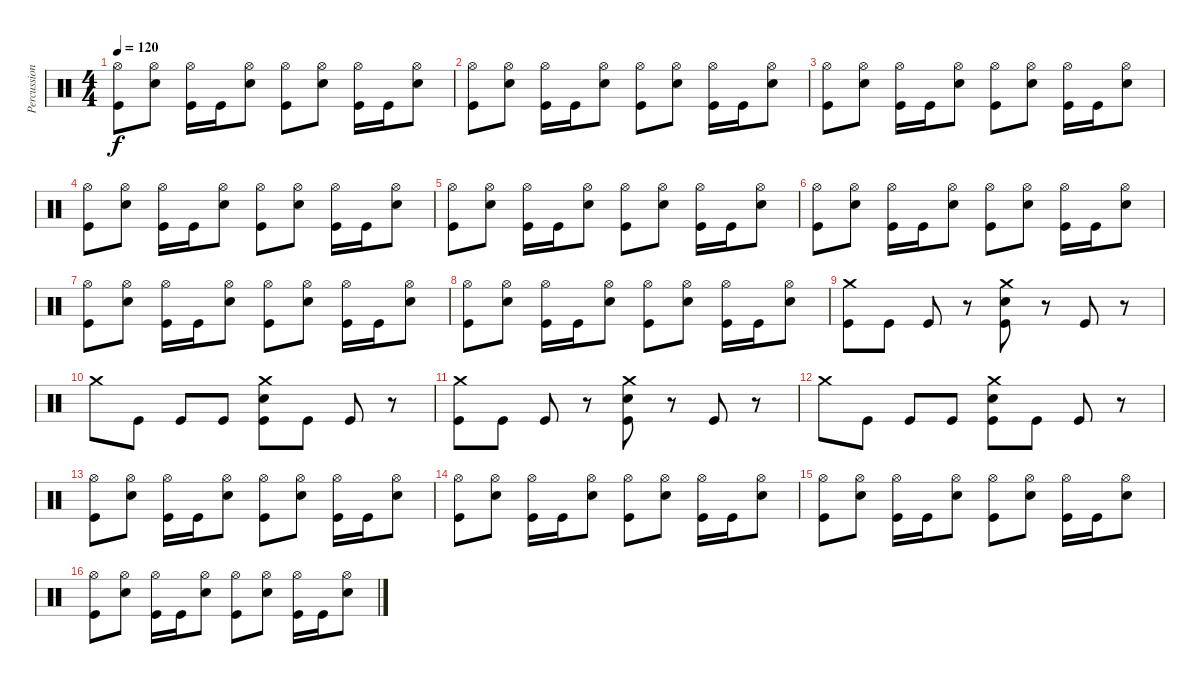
\track ("Percussion" "Percussion") {instrument percussion}
\staff {score}
\articulation defaults
\ts (4 4)
\tempo 120
\clef neutral
\ks c
("Hi-Hat (open)" "Kick (hit)").8{dy f} ("Hi-Hat (open)" "Snare (hit) 2").8 ("Hi-Hat (open)" "Kick (hit)").16 "Kick (hit)".16 ("Hi-Hat (open)" "Snare (hit) 2").8 ("Hi-Hat (open)" "Kick (hit)").8 ("Hi-Hat (open)" "Snare (hit) 2").8 ("Hi-Hat (open)" "Kick (hit)").16 "Kick (hit)".16 ("Hi-Hat (open)" "Snare (hit) 2").8 |
("Hi-Hat (open)" "Kick (hit)").8 ("Hi-Hat (open)" "Snare (hit) 2").8 ("Hi-Hat (open)" "Kick (hit)").16 "Kick (hit)".16 ("Hi-Hat (open)" "Snare (hit) 2").8 ("Hi-Hat (open)" "Kick (hit)").8 ("Hi-Hat (open)" "Snare (hit) 2").8 ("Hi-Hat (open)" "Kick (hit)").16 "Kick (hit)".16 ("Hi-Hat (open)" "Snare (hit) 2").8 |
("Hi-Hat (open)" "Kick (hit)").8 ("Hi-Hat (open)" "Snare (hit) 2").8 ("Hi-Hat (open)" "Kick (hit)").16 "Kick (hit)".16 ("Hi-Hat (open)" "Snare (hit) 2").8 ("Hi-Hat (open)" "Kick (hit)").8 ("Hi-Hat (open)" "Snare (hit) 2").8 ("Hi-Hat (open)" "Kick (hit)").16 "Kick (hit)".16 ("Hi-Hat (open)" "Snare (hit) 2").8 |
("Hi-Hat (open)" "Kick (hit)").8 ("Hi-Hat (open)" "Snare (hit) 2").8 ("Hi-Hat (open)" "Kick (hit)").16 "Kick (hit)".16 ("Hi-Hat (open)" "Snare (hit) 2").8 ("Hi-Hat (open)" "Kick (hit)").8 ("Hi-Hat (open)" "Snare (hit) 2").8 ("Hi-Hat (open)" "Kick (hit)").16 "Kick (hit)".16 ("Hi-Hat (open)" "Snare (hit) 2").8 |
("Hi-Hat (open)" "Kick (hit)").8 ("Hi-Hat (open)" "Snare (hit) 2").8 ("Hi-Hat (open)" "Kick (hit)").16 "Kick (hit)".16 ("Hi-Hat (open)" "Snare (hit) 2").8 ("Hi-Hat (open)" "Kick (hit)").8 ("Hi-Hat (open)" "Snare (hit) 2").8 ("Hi-Hat (open)" "Kick (hit)").16 "Kick (hit)".16 ("Hi-Hat (open)" "Snare (hit) 2").8 |
("Hi-Hat (open)" "Kick (hit)").8 ("Hi-Hat (open)" "Snare (hit) 2").8 ("Hi-Hat (open)" "Kick (hit)").16 "Kick (hit)".16 ("Hi-Hat (open)" "Snare (hit) 2").8 ("Hi-Hat (open)" "Kick (hit)").8 ("Hi-Hat (open)" "Snare (hit) 2").8 ("Hi-Hat (open)" "Kick (hit)").16 "Kick (hit)".16 ("Hi-Hat (open)" "Snare (hit) 2").8 |
("Hi-Hat (open)" "Kick (hit)").8 ("Hi-Hat (open)" "Snare (hit) 2").8 ("Hi-Hat (open)" "Kick (hit)").16 "Kick (hit)".16 ("Hi-Hat (open)" "Snare (hit) 2").8 ("Hi-Hat (open)" "Kick (hit)").8 ("Hi-Hat (open)" "Snare (hit) 2").8 ("Hi-Hat (open)" "Kick (hit)").16 "Kick (hit)".16 ("Hi-Hat (open)" "Snare (hit) 2").8 |
("Hi-Hat (open)" "Kick (hit)").8 ("Hi-Hat (open)" "Snare (hit) 2").8 ("Hi-Hat (open)" "Kick (hit)").16 "Kick (hit)".16 ("Hi-Hat (open)" "Snare (hit) 2").8 ("Hi-Hat (open)" "Kick (hit)").8 ("Hi-Hat (open)" "Snare (hit) 2").8 ("Hi-Hat (open)" "Kick (hit)").16 "Kick (hit)".16 ("Hi-Hat (open)" "Snare (hit) 2").8 |
("Crash medium (hit)" "Kick (hit)").8 "Kick (hit)".8 "Kick (hit)".8 r.8 ("Crash medium (hit)" "Snare (hit) 2" "Kick (hit)").8 r.8 "Kick (hit)".8 r.8 |
"Crash medium (hit)".8 "Kick (hit)".8 "Kick (hit)".8 "Kick (hit)".8 ("Crash medium (hit)" "Snare (hit) 2" "Kick (hit)").8 "Kick (hit)".8 "Kick (hit)".8 r.8 |
("Crash medium (hit)" "Kick (hit)").8 "Kick (hit)".8 "Kick (hit)".8 r.8 ("Crash medium (hit)" "Snare (hit) 2" "Kick (hit)").8 r.8 "Kick (hit)".8 r.8 |
"Crash medium (hit)".8 "Kick (hit)".8 "Kick (hit)".8 "Kick (hit)".8 ("Crash medium (hit)" "Snare (hit) 2" "Kick (hit)").8 "Kick (hit)".8 "Kick (hit)".8 r.8 |
("Hi-Hat (open)" "Kick (hit)").8 ("Hi-Hat (open)" "Snare (hit) 2").8 ("Hi-Hat (open)" "Kick (hit)").16 "Kick (hit)".16 ("Hi-Hat (open)" "Snare (hit) 2").8 ("Hi-Hat (open)" "Kick (hit)").8 ("Hi-Hat (open)" "Snare (hit) 2").8 ("Hi-Hat (open)" "Kick (hit)").16 "Kick (hit)".16 ("Hi-Hat (open)" "Snare (hit) 2").8 |
("Hi-Hat (open)" "Kick (hit)").8 ("Hi-Hat (open)" "Snare (hit) 2").8 ("Hi-Hat (open)" "Kick (hit)").16 "Kick (hit)".16 ("Hi-Hat (open)" "Snare (hit) 2").8 ("Hi-Hat (open)" "Kick (hit)").8 ("Hi-Hat (open)" "Snare (hit) 2").8 ("Hi-Hat (open)" "Kick (hit)").16 "Kick (hit)".16 ("Hi-Hat (open)" "Snare (hit) 2").8 |
("Hi-Hat (open)" "Kick (hit)").8 ("Hi-Hat (open)" "Snare (hit) 2").8 ("Hi-Hat (open)" "Kick (hit)").16 "Kick (hit)".16 ("Hi-Hat (open)" "Snare (hit) 2").8 ("Hi-Hat (open)" "Kick (hit)").8 ("Hi-Hat (open)" "Snare (hit) 2").8 ("Hi-Hat (open)" "Kick (hit)").16 "Kick (hit)".16 ("Hi-Hat (open)" "Snare (hit) 2").8 |
("Hi-Hat (open)" "Kick (hit)").8 ("Hi-Hat (open)" "Snare (hit) 2").8 ("Hi-Hat (open)" "Kick (hit)").16 "Kick (hit)".16 ("Hi-Hat (open)" "Snare (hit) 2").8 ("Hi-Hat (open)" "Kick (hit)").8 ("Hi-Hat (open)" "Snare (hit) 2").8 ("Hi-Hat (open)" "Kick (hit)").16 "Kick (hit)".16 ("Hi-Hat (open)" "Snare (hit) 2").8
